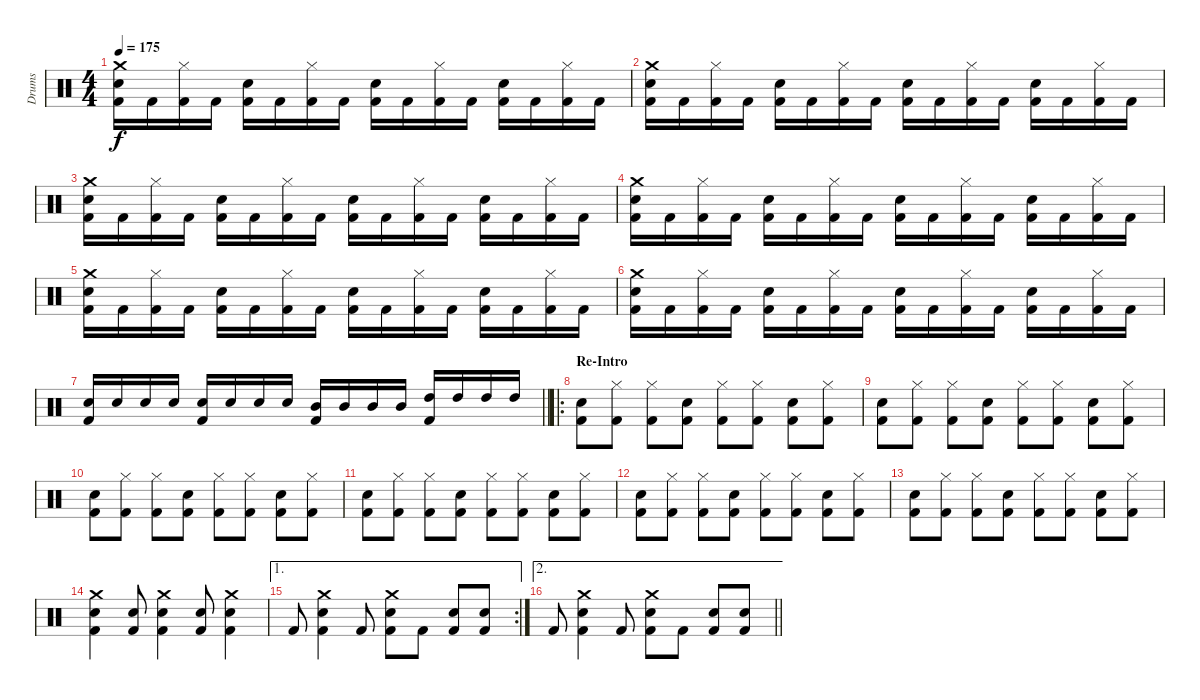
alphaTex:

\track ("Drums" "Drums") {instrument percussion}
\staff {score}
\articulation defaults
\ts (4 4)
\tempo 175
\clef neutral
\ks c
("Kick (hit) 2" "Snare (hit) 2" "Crash medium (hit)").16{dy f} "Kick (hit) 2".16 ("Kick (hit) 2" "Hi-Hat (closed)").16 "Kick (hit) 2".16 ("Kick (hit) 2" "Snare (hit) 2").16 "Kick (hit) 2".16 ("Kick (hit) 2" "Hi-Hat (closed)").16 "Kick (hit) 2".16 ("Kick (hit) 2" "Snare (hit) 2").16 "Kick (hit) 2".16 ("Kick (hit) 2" "Hi-Hat (closed)").16 "Kick (hit) 2".16 ("Kick (hit) 2" "Snare (hit) 2").16 "Kick (hit) 2".16 ("Kick (hit) 2" "Hi-Hat (closed)").16 "Kick (hit) 2".16 |
("Kick (hit) 2" "Snare (hit) 2" "Crash medium (hit)").16 "Kick (hit) 2".16 ("Kick (hit) 2" "Hi-Hat (closed)").16 "Kick (hit) 2".16 ("Kick (hit) 2" "Snare (hit) 2").16 "Kick (hit) 2".16 ("Kick (hit) 2" "Hi-Hat (closed)").16 "Kick (hit) 2".16 ("Kick (hit) 2" "Snare (hit) 2").16 "Kick (hit) 2".16 ("Kick (hit) 2" "Hi-Hat (closed)").16 "Kick (hit) 2".16 ("Kick (hit) 2" "Snare (hit) 2").16 "Kick (hit) 2".16 ("Kick (hit) 2" "Hi-Hat (closed)").16 "Kick (hit) 2".16 |
("Kick (hit) 2" "Snare (hit) 2" "Crash medium (hit)").16 "Kick (hit) 2".16 ("Kick (hit) 2" "Hi-Hat (closed)").16 "Kick (hit) 2".16 ("Kick (hit) 2" "Snare (hit) 2").16 "Kick (hit) 2".16 ("Kick (hit) 2" "Hi-Hat (closed)").16 "Kick (hit) 2".16 ("Kick (hit) 2" "Snare (hit) 2").16 "Kick (hit) 2".16 ("Kick (hit) 2" "Hi-Hat (closed)").16 "Kick (hit) 2".16 ("Kick (hit) 2" "Snare (hit) 2").16 "Kick (hit) 2".16 ("Kick (hit) 2" "Hi-Hat (closed)").16 "Kick (hit) 2".16 |
("Kick (hit) 2" "Snare (hit) 2" "Crash medium (hit)").16 "Kick (hit) 2".16 ("Kick (hit) 2" "Hi-Hat (closed)").16 "Kick (hit) 2".16 ("Kick (hit) 2" "Snare (hit) 2").16 "Kick (hit) 2".16 ("Kick (hit) 2" "Hi-Hat (closed)").16 "Kick (hit) 2".16 ("Kick (hit) 2" "Snare (hit) 2").16 "Kick (hit) 2".16 ("Kick (hit) 2" "Hi-Hat (closed)").16 "Kick (hit) 2".16 ("Kick (hit) 2" "Snare (hit) 2").16 "Kick (hit) 2".16 ("Kick (hit) 2" "Hi-Hat (closed)").16 "Kick (hit) 2".16 |
("Kick (hit) 2" "Snare (hit) 2" "Crash medium (hit)").16 "Kick (hit) 2".16 ("Kick (hit) 2" "Hi-Hat (closed)").16 "Kick (hit) 2".16 ("Kick (hit) 2" "Snare (hit) 2").16 "Kick (hit) 2".16 ("Kick (hit) 2" "Hi-Hat (closed)").16 "Kick (hit) 2".16 ("Kick (hit) 2" "Snare (hit) 2").16 "Kick (hit) 2".16 ("Kick (hit) 2" "Hi-Hat (closed)").16 "Kick (hit) 2".16 ("Kick (hit) 2" "Snare (hit) 2").16 "Kick (hit) 2".16 ("Kick (hit) 2" "Hi-Hat (closed)").16 "Kick (hit) 2".16 |
("Kick (hit) 2" "Snare (hit) 2" "Crash medium (hit)").16 "Kick (hit) 2".16 ("Kick (hit) 2" "Hi-Hat (closed)").16 "Kick (hit) 2".16 ("Kick (hit) 2" "Snare (hit) 2").16 "Kick (hit) 2".16 ("Kick (hit) 2" "Hi-Hat (closed)").16 "Kick (hit) 2".16 ("Kick (hit) 2" "Snare (hit) 2").16 "Kick (hit) 2".16 ("Kick (hit) 2" "Hi-Hat (closed)").16 "Kick (hit) 2".16 ("Kick (hit) 2" "Snare (hit) 2").16 "Kick (hit) 2".16 ("Kick (hit) 2" "Hi-Hat (closed)").16 "Kick (hit) 2".16 |
\barLineRight lightlight
("Kick (hit) 2" "Snare (hit) 2").16 "Snare (hit) 2".16 "Snare (hit) 2".16 "Snare (hit) 2".16 ("Kick (hit) 2" "Electric Snare (hit)").16 "Electric Snare (hit)".16 "Electric Snare (hit)".16 "Electric Snare (hit)".16 ("Kick (hit) 2" "Mid Tom (hit)").16 "Mid Tom (hit)".16 "Mid Tom (hit)".16 "Mid Tom (hit)".16 ("Kick (hit) 2" "High Tom (hit)").16 "High Tom (hit)".16 "High Tom (hit)".16 "High Tom (hit)".16 |
\ro
\section ("" "Re-Intro")
("Kick (hit) 2" "Snare (hit) 2").8 ("Kick (hit) 2" "Hi-Hat (closed)").8 ("Kick (hit) 2" "Hi-Hat (closed)").8 ("Kick (hit) 2" "Snare (hit) 2").8 ("Kick (hit) 2" "Hi-Hat (closed)").8 ("Kick (hit) 2" "Hi-Hat (closed)").8 ("Kick (hit) 2" "Snare (hit) 2").8 ("Kick (hit) 2" "Hi-Hat (closed)").8 |
("Kick (hit) 2" "Snare (hit) 2").8 ("Kick (hit) 2" "Hi-Hat (closed)").8 ("Kick (hit) 2" "Hi-Hat (closed)").8 ("Kick (hit) 2" "Snare (hit) 2").8 ("Kick (hit) 2" "Hi-Hat (closed)").8 ("Kick (hit) 2" "Hi-Hat (closed)").8 ("Kick (hit) 2" "Snare (hit) 2").8 ("Kick (hit) 2" "Hi-Hat (closed)").8 |
("Kick (hit) 2" "Snare (hit) 2").8 ("Kick (hit) 2" "Hi-Hat (closed)").8 ("Kick (hit) 2" "Hi-Hat (closed)").8 ("Kick (hit) 2" "Snare (hit) 2").8 ("Kick (hit) 2" "Hi-Hat (closed)").8 ("Kick (hit) 2" "Hi-Hat (closed)").8 ("Kick (hit) 2" "Snare (hit) 2").8 ("Kick (hit) 2" "Hi-Hat (closed)").8 |
("Kick (hit) 2" "Snare (hit) 2").8 ("Kick (hit) 2" "Hi-Hat (closed)").8 ("Kick (hit) 2" "Hi-Hat (closed)").8 ("Kick (hit) 2" "Snare (hit) 2").8 ("Kick (hit) 2" "Hi-Hat (closed)").8 ("Kick (hit) 2" "Hi-Hat (closed)").8 ("Kick (hit) 2" "Snare (hit) 2").8 ("Kick (hit) 2" "Hi-Hat (closed)").8 |
("Kick (hit) 2" "Snare (hit) 2").8 ("Kick (hit) 2" "Hi-Hat (closed)").8 ("Kick (hit) 2" "Hi-Hat (closed)").8 ("Kick (hit) 2" "Snare (hit) 2").8 ("Kick (hit) 2" "Hi-Hat (closed)").8 ("Kick (hit) 2" "Hi-Hat (closed)").8 ("Kick (hit) 2" "Snare (hit) 2").8 ("Kick (hit) 2" "Hi-Hat (closed)").8 |
("Kick (hit) 2" "Snare (hit) 2").8 ("Kick (hit) 2" "Hi-Hat (closed)").8 ("Kick (hit) 2" "Hi-Hat (closed)").8 ("Kick (hit) 2" "Snare (hit) 2").8 ("Kick (hit) 2" "Hi-Hat (closed)").8 ("Kick (hit) 2" "Hi-Hat (closed)").8 ("Kick (hit) 2" "Snare (hit) 2").8 ("Kick (hit) 2" "Hi-Hat (closed)").8 |
("Kick (hit) 2" "Snare (hit) 2" "Crash medium (hit)").4 ("Kick (hit) 2" "Snare (hit) 2").8 ("Kick (hit) 2" "Crash medium (hit)" "Snare (hit) 2").4 ("Kick (hit) 2" "Snare (hit) 2").8 ("Kick (hit) 2" "Snare (hit) 2" "Crash medium (hit)").4 |
\ae 1
\rc 2 "Kick (hit) 2".8
("Kick (hit) 2" "Crash medium (hit)" "Snare (hit) 2").4 "Kick (hit) 2".8 ("Kick (hit) 2" "Snare (hit) 2" "Crash medium (hit)").8 "Kick (hit) 2".8 ("Kick (hit) 2" "Snare (hit) 2").8 ("Kick (hit) 2" "Snare (hit) 2").8 |
\ae 2
\barLineRight lightlight "Kick (hit) 2".8
("Kick (hit) 2" "Crash medium (hit)" "Snare (hit) 2").4 "Kick (hit) 2".8 ("Kick (hit) 2" "Snare (hit) 2" "Crash medium (hit)").8 "Kick (hit) 2".8 ("Kick (hit) 2" "Snare (hit) 2").8 ("Kick (hit) 2" "Snare (hit) 2").8
